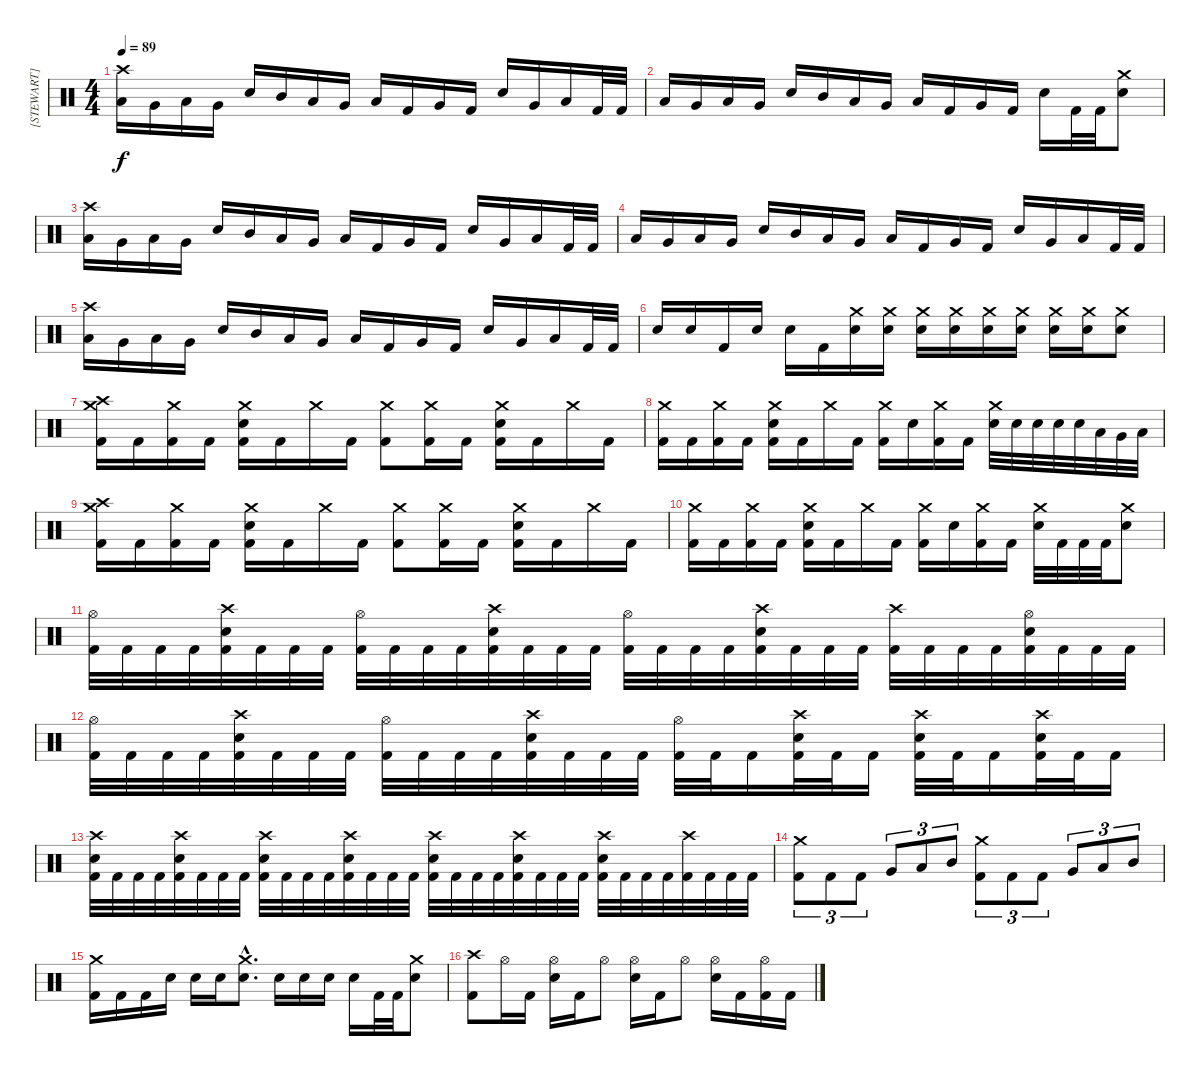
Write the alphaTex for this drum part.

\track ("[STEWART]" "[STEWART]") {instrument percussion}
\staff {score}
\articulation defaults
\ts (4 4)
\tempo 89
\clef neutral
\ks c
("Crash high (hit)" "Low Tom (hit)").16{dy f} "Very Low Tom (hit)".16 "Low Floor Tom (hit)".16 "Very Low Tom (hit)".16 "Electric Snare (hit)".16 "Mid Tom (hit)".16 "Low Tom (hit)".16 "Very Low Tom (hit)".16 "Low Floor Tom (hit)".16 "Kick (hit) 2".16 "Very Low Tom (hit)".16 "Kick (hit) 2".16 "Electric Snare (hit)".16 "Very Low Tom (hit)".16 "Low Floor Tom (hit)".16 "Kick (hit) 2".32 "Kick (hit) 2".32 |
"Low Tom (hit)".16 "Very Low Tom (hit)".16 "Low Floor Tom (hit)".16 "Very Low Tom (hit)".16 "Electric Snare (hit)".16 "Mid Tom (hit)".16 "Low Tom (hit)".16 "Very Low Tom (hit)".16 "Low Floor Tom (hit)".16 "Kick (hit) 2".16 "Very Low Tom (hit)".16 "Kick (hit) 2".16 "Electric Snare (hit)".16 "Kick (hit) 2".32 "Kick (hit) 2".32 ("Crash medium (hit)" "Electric Snare (hit)").8 |
("Crash high (hit)" "Low Tom (hit)").16 "Very Low Tom (hit)".16 "Low Floor Tom (hit)".16 "Very Low Tom (hit)".16 "Electric Snare (hit)".16 "Mid Tom (hit)".16 "Low Tom (hit)".16 "Very Low Tom (hit)".16 "Low Floor Tom (hit)".16 "Kick (hit) 2".16 "Very Low Tom (hit)".16 "Kick (hit) 2".16 "Electric Snare (hit)".16 "Very Low Tom (hit)".16 "Low Floor Tom (hit)".16 "Kick (hit) 2".32 "Kick (hit) 2".32 |
"Low Tom (hit)".16 "Very Low Tom (hit)".16 "Low Floor Tom (hit)".16 "Very Low Tom (hit)".16 "Electric Snare (hit)".16 "Mid Tom (hit)".16 "Low Tom (hit)".16 "Very Low Tom (hit)".16 "Low Floor Tom (hit)".16 "Kick (hit) 2".16 "Very Low Tom (hit)".16 "Kick (hit) 2".16 "Electric Snare (hit)".16 "Very Low Tom (hit)".16 "Low Floor Tom (hit)".16 "Kick (hit) 2".32 "Kick (hit) 2".32 |
("Crash high (hit)" "Low Tom (hit)").16 "Very Low Tom (hit)".16 "Low Floor Tom (hit)".16 "Very Low Tom (hit)".16 "Electric Snare (hit)".16 "Mid Tom (hit)".16 "Low Tom (hit)".16 "Very Low Tom (hit)".16 "Low Floor Tom (hit)".16 "Kick (hit) 2".16 "Very Low Tom (hit)".16 "Kick (hit) 2".16 "Electric Snare (hit)".16 "Very Low Tom (hit)".16 "Low Floor Tom (hit)".16 "Kick (hit) 2".32 "Kick (hit) 2".32 |
"Electric Snare (hit)".16 "Electric Snare (hit)".16 "Kick (hit) 2".16 "Electric Snare (hit)".16 "Electric Snare (hit)".16 "Kick (hit) 2".16 ("Crash medium (hit)" "Electric Snare (hit)").16 ("Crash medium (hit)" "Electric Snare (hit)").16 ("Crash medium (hit)" "Electric Snare (hit)").16 ("Crash medium (hit)" "Electric Snare (hit)").16 ("Crash medium (hit)" "Electric Snare (hit)").16 ("Crash medium (hit)" "Electric Snare (hit)").16 ("Crash medium (hit)" "Electric Snare (hit)").16 ("Crash medium (hit)" "Electric Snare (hit)").16 ("Crash medium (hit)" "Electric Snare (hit)").8 |
("Crash medium (hit)" "Crash high (hit)" "Kick (hit) 2").16 "Kick (hit) 2".16 ("Crash medium (hit)" "Kick (hit) 2").16 "Kick (hit) 2".16 ("Crash medium (hit)" "Electric Snare (hit)" "Kick (hit) 2").16 "Kick (hit) 2".16 "Crash medium (hit)".16 "Kick (hit) 2".16 ("Crash medium (hit)" "Kick (hit) 2").8 ("Crash medium (hit)" "Kick (hit) 2").16 "Kick (hit) 2".16 ("Crash medium (hit)" "Electric Snare (hit)" "Kick (hit) 2").16 "Kick (hit) 2".16 "Crash medium (hit)".16 "Kick (hit) 2".16 |
("Crash medium (hit)" "Kick (hit) 2").16 "Kick (hit) 2".16 ("Crash medium (hit)" "Kick (hit) 2").16 "Kick (hit) 2".16 ("Crash medium (hit)" "Electric Snare (hit)" "Kick (hit) 2").16 "Kick (hit) 2".16 "Crash medium (hit)".16 "Kick (hit) 2".16 ("Crash medium (hit)" "Kick (hit) 2").16 "Electric Snare (hit)".16 ("Crash medium (hit)" "Kick (hit) 2").16 "Kick (hit) 2".16 ("Crash medium (hit)" "Electric Snare (hit)").32 "Electric Snare (hit)".32 "Electric Snare (hit)".32 "Electric Snare (hit)".32 "Electric Snare (hit)".32 "Low Tom (hit)".32 "Very Low Tom (hit)".32 "Low Floor Tom (hit)".32 |
("Crash medium (hit)" "Crash high (hit)" "Kick (hit) 2").16 "Kick (hit) 2".16 ("Crash medium (hit)" "Kick (hit) 2").16 "Kick (hit) 2".16 ("Crash medium (hit)" "Electric Snare (hit)" "Kick (hit) 2").16 "Kick (hit) 2".16 "Crash medium (hit)".16 "Kick (hit) 2".16 ("Crash medium (hit)" "Kick (hit) 2").8 ("Crash medium (hit)" "Kick (hit) 2").16 "Kick (hit) 2".16 ("Crash medium (hit)" "Electric Snare (hit)" "Kick (hit) 2").16 "Kick (hit) 2".16 "Crash medium (hit)".16 "Kick (hit) 2".16 |
("Crash medium (hit)" "Kick (hit) 2").16 "Kick (hit) 2".16 ("Crash medium (hit)" "Kick (hit) 2").16 "Kick (hit) 2".16 ("Crash medium (hit)" "Electric Snare (hit)" "Kick (hit) 2").16 "Kick (hit) 2".16 "Crash medium (hit)".16 "Kick (hit) 2".16 ("Crash medium (hit)" "Kick (hit) 2").16 "Electric Snare (hit)".16 ("Crash medium (hit)" "Kick (hit) 2").16 "Kick (hit) 2".16 ("Crash medium (hit)" "Electric Snare (hit)").32 "Kick (hit) 2".32 "Kick (hit) 2".32 "Kick (hit) 2".32 ("Crash medium (hit)" "Electric Snare (hit)").8 |
("Hi-Hat (open)" "Kick (hit) 2").32 "Kick (hit) 2".32 "Kick (hit) 2".32 "Kick (hit) 2".32 ("Crash high (hit)" "Electric Snare (hit)" "Kick (hit) 2").32 "Kick (hit) 2".32 "Kick (hit) 2".32 "Kick (hit) 2".32 ("Hi-Hat (open)" "Kick (hit) 2").32 "Kick (hit) 2".32 "Kick (hit) 2".32 "Kick (hit) 2".32 ("Crash high (hit)" "Electric Snare (hit)" "Kick (hit) 2").32 "Kick (hit) 2".32 "Kick (hit) 2".32 "Kick (hit) 2".32 ("Hi-Hat (open)" "Kick (hit) 2").32 "Kick (hit) 2".32 "Kick (hit) 2".32 "Kick (hit) 2".32 ("Crash high (hit)" "Electric Snare (hit)" "Kick (hit) 2").32 "Kick (hit) 2".32 "Kick (hit) 2".32 "Kick (hit) 2".32 ("Crash high (hit)" "Kick (hit) 2").32 "Kick (hit) 2".32 "Kick (hit) 2".32 "Kick (hit) 2".32 ("Hi-Hat (open)" "Electric Snare (hit)" "Kick (hit) 2").32 "Kick (hit) 2".32 "Kick (hit) 2".32 "Kick (hit) 2".32 |
("Hi-Hat (open)" "Kick (hit) 2").32 "Kick (hit) 2".32 "Kick (hit) 2".32 "Kick (hit) 2".32 ("Crash high (hit)" "Electric Snare (hit)" "Kick (hit) 2").32 "Kick (hit) 2".32 "Kick (hit) 2".32 "Kick (hit) 2".32 ("Hi-Hat (open)" "Kick (hit) 2").32 "Kick (hit) 2".32 "Kick (hit) 2".32 "Kick (hit) 2".32 ("Crash high (hit)" "Electric Snare (hit)" "Kick (hit) 2").32 "Kick (hit) 2".32 "Kick (hit) 2".32 "Kick (hit) 2".32 ("Hi-Hat (open)" "Kick (hit) 2").32 "Kick (hit) 2".32 "Kick (hit) 2".16 ("Crash high (hit)" "Electric Snare (hit)" "Kick (hit) 2").32 "Kick (hit) 2".32 "Kick (hit) 2".16 ("Crash high (hit)" "Electric Snare (hit)" "Kick (hit) 2").32 "Kick (hit) 2".32 "Kick (hit) 2".16 ("Crash high (hit)" "Electric Snare (hit)" "Kick (hit) 2").32 "Kick (hit) 2".32 "Kick (hit) 2".16 |
("Crash high (hit)" "Electric Snare (hit)" "Kick (hit) 2").32 "Kick (hit) 2".32 "Kick (hit) 2".32 "Kick (hit) 2".32 ("Crash high (hit)" "Electric Snare (hit)" "Kick (hit) 2").32 "Kick (hit) 2".32 "Kick (hit) 2".32 "Kick (hit) 2".32 ("Crash high (hit)" "Electric Snare (hit)" "Kick (hit) 2").32 "Kick (hit) 2".32 "Kick (hit) 2".32 "Kick (hit) 2".32 ("Crash high (hit)" "Electric Snare (hit)" "Kick (hit) 2").32 "Kick (hit) 2".32 "Kick (hit) 2".32 "Kick (hit) 2".32 ("Crash high (hit)" "Electric Snare (hit)" "Kick (hit) 2").32 "Kick (hit) 2".32 "Kick (hit) 2".32 "Kick (hit) 2".32 ("Crash high (hit)" "Electric Snare (hit)" "Kick (hit) 2").32 "Kick (hit) 2".32 "Kick (hit) 2".32 "Kick (hit) 2".32 ("Crash high (hit)" "Electric Snare (hit)" "Kick (hit) 2").32 "Kick (hit) 2".32 "Kick (hit) 2".32 "Kick (hit) 2".32 ("Crash high (hit)" "Kick (hit) 2").32 "Kick (hit) 2".32 "Kick (hit) 2".32 "Kick (hit) 2".32 |
("Crash medium (hit)" "Kick (hit) 2").8{tu (3 2)} "Kick (hit) 2".8{tu (3 2)} "Kick (hit) 2".8{tu (3 2)} "Very Low Tom (hit)".8{tu (3 2)} "Low Tom (hit)".8{tu (3 2)} "Mid Tom (hit)".8{tu (3 2)} ("Crash medium (hit)" "Kick (hit) 2").8{tu (3 2)} "Kick (hit) 2".8{tu (3 2)} "Kick (hit) 2".8{tu (3 2)} "Very Low Tom (hit)".8{tu (3 2)} "Low Tom (hit)".8{tu (3 2)} "Mid Tom (hit)".8{tu (3 2)} |
("Crash medium (hit)" "Kick (hit) 2").16 "Kick (hit) 2".16 "Kick (hit) 2".16 "Electric Snare (hit)".16 "Electric Snare (hit)".16 "Electric Snare (hit)".16 ("Crash medium (hit)"{hac} "Electric Snare (hit)"{hac}).8{d} "Electric Snare (hit)".16 "Electric Snare (hit)".16 "Electric Snare (hit)".16 "Electric Snare (hit)".16 "Kick (hit) 2".32 "Kick (hit) 2".32 ("Crash medium (hit)" "Electric Snare (hit)").8 |
("Crash high (hit)" "Kick (hit) 2").8 "Hi-Hat (open)".16 "Kick (hit) 2".16 ("Hi-Hat (open)" "Electric Snare (hit)").16 "Kick (hit) 2".16 "Hi-Hat (open)".8 ("Hi-Hat (open)" "Electric Snare (hit)").16 "Kick (hit) 2".16 "Hi-Hat (open)".8 ("Hi-Hat (open)" "Electric Snare (hit)").16 "Kick (hit) 2".16 ("Hi-Hat (open)" "Kick (hit) 2").16 "Kick (hit) 2".16
